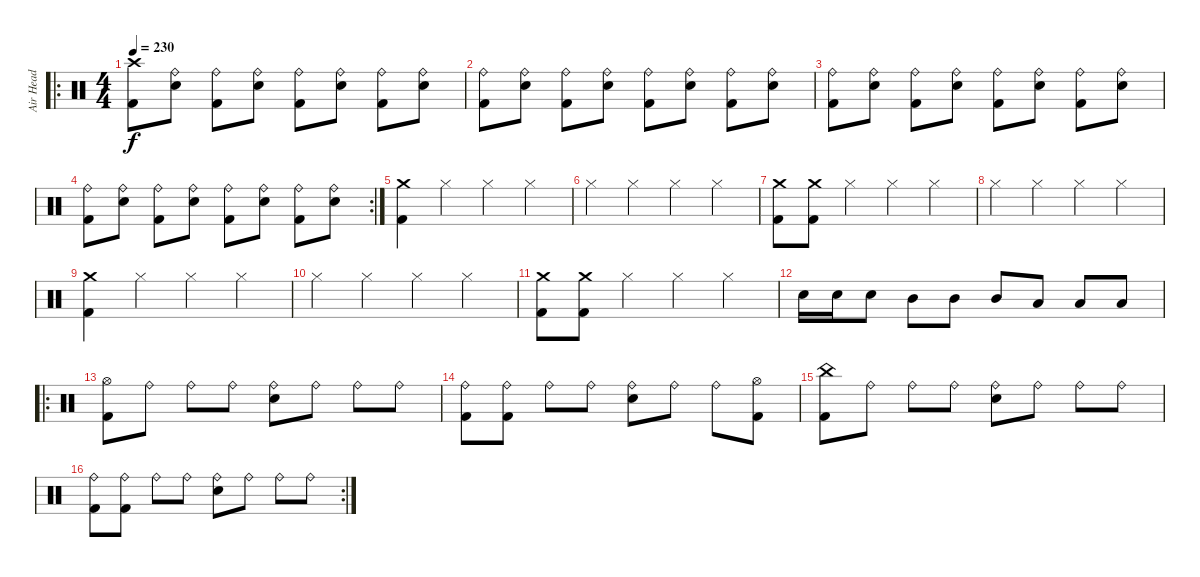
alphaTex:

\track ("Air Head" "Air Head") {instrument percussion}
\staff {score}
\articulation defaults
\ro
\ts (4 4)
\tempo 230
\clef neutral
\ks c
("Crash high (hit)" "Kick (hit) 2").8{dy f} ("Ride (bell)" "Snare (hit) 2").8 ("Ride (bell)" "Kick (hit) 2").8 ("Ride (bell)" "Snare (hit) 2").8 ("Ride (bell)" "Kick (hit) 2").8 ("Ride (bell)" "Snare (hit) 2").8 ("Ride (bell)" "Kick (hit) 2").8 ("Ride (bell)" "Snare (hit) 2").8 |
("Ride (bell)" "Kick (hit) 2").8 ("Ride (bell)" "Snare (hit) 2").8 ("Ride (bell)" "Kick (hit) 2").8 ("Ride (bell)" "Snare (hit) 2").8 ("Ride (bell)" "Kick (hit) 2").8 ("Ride (bell)" "Snare (hit) 2").8 ("Ride (bell)" "Kick (hit) 2").8 ("Ride (bell)" "Snare (hit) 2").8 |
("Ride (bell)" "Kick (hit) 2").8 ("Ride (bell)" "Snare (hit) 2").8 ("Ride (bell)" "Kick (hit) 2").8 ("Ride (bell)" "Snare (hit) 2").8 ("Ride (bell)" "Kick (hit) 2").8 ("Ride (bell)" "Snare (hit) 2").8 ("Ride (bell)" "Kick (hit) 2").8 ("Ride (bell)" "Snare (hit) 2").8 |
\rc 2
("Ride (bell)" "Kick (hit) 2").8 ("Ride (bell)" "Snare (hit) 2").8 ("Ride (bell)" "Kick (hit) 2").8 ("Ride (bell)" "Snare (hit) 2").8 ("Ride (bell)" "Kick (hit) 2").8 ("Ride (bell)" "Snare (hit) 2").8 ("Ride (bell)" "Kick (hit) 2").8 ("Ride (bell)" "Snare (hit) 2").8 |
("Kick (hit) 2" "Crash medium (hit)").4 "Hi-Hat (closed)".4 "Hi-Hat (closed)".4 "Hi-Hat (closed)".4 |
"Hi-Hat (closed)".4 "Hi-Hat (closed)".4 "Hi-Hat (closed)".4 "Hi-Hat (closed)".4 |
("Crash medium (hit)" "Kick (hit) 2").8 ("Crash medium (hit)" "Kick (hit) 2").8 "Hi-Hat (closed)".4 "Hi-Hat (closed)".4 "Hi-Hat (closed)".4 |
"Hi-Hat (closed)".4 "Hi-Hat (closed)".4 "Hi-Hat (closed)".4 "Hi-Hat (closed)".4 |
("Crash medium (hit)" "Kick (hit) 2").4 "Hi-Hat (closed)".4 "Hi-Hat (closed)".4 "Hi-Hat (closed)".4 |
"Hi-Hat (closed)".4 "Hi-Hat (closed)".4 "Hi-Hat (closed)".4 "Hi-Hat (closed)".4 |
("Crash medium (hit)" "Kick (hit) 2").8 ("Crash medium (hit)" "Kick (hit) 2").8 "Hi-Hat (closed)".4 "Hi-Hat (closed)".4 "Hi-Hat (closed)".4 |
"Snare (hit) 2".16 "Snare (hit) 2".16 "Snare (hit) 2".8 "Mid Tom (hit)".8 "Mid Tom (hit)".8 "Mid Tom (hit)".8 "Low Tom (hit)".8 "Low Tom (hit)".8 "Low Tom (hit)".8 |
\ro
("Hi-Hat (open)" "Kick (hit) 2").8 "Ride (bell)".8 "Ride (bell)".8 "Ride (bell)".8 ("Ride (bell)" "Snare (hit) 2").8 "Ride (bell)".8 "Ride (bell)".8 "Ride (bell)".8 |
("Ride (bell)" "Kick (hit) 2").8 ("Ride (bell)" "Kick (hit) 2").8 "Ride (bell)".8 "Ride (bell)".8 ("Ride (bell)" "Snare (hit) 2").8 "Ride (bell)".8 "Ride (bell)".8 ("Hi-Hat (open)" "Kick (hit) 2").8 |
("China (hit)" "Kick (hit) 2").8 "Ride (bell)".8 "Ride (bell)".8 "Ride (bell)".8 ("Ride (bell)" "Snare (hit) 2").8 "Ride (bell)".8 "Ride (bell)".8 "Ride (bell)".8 |
\rc 2
("Ride (bell)" "Kick (hit) 2").8 ("Ride (bell)" "Kick (hit) 2").8 "Ride (bell)".8 "Ride (bell)".8 ("Ride (bell)" "Snare (hit) 2").8 "Ride (bell)".8 "Ride (bell)".8 "Ride (bell)".8
